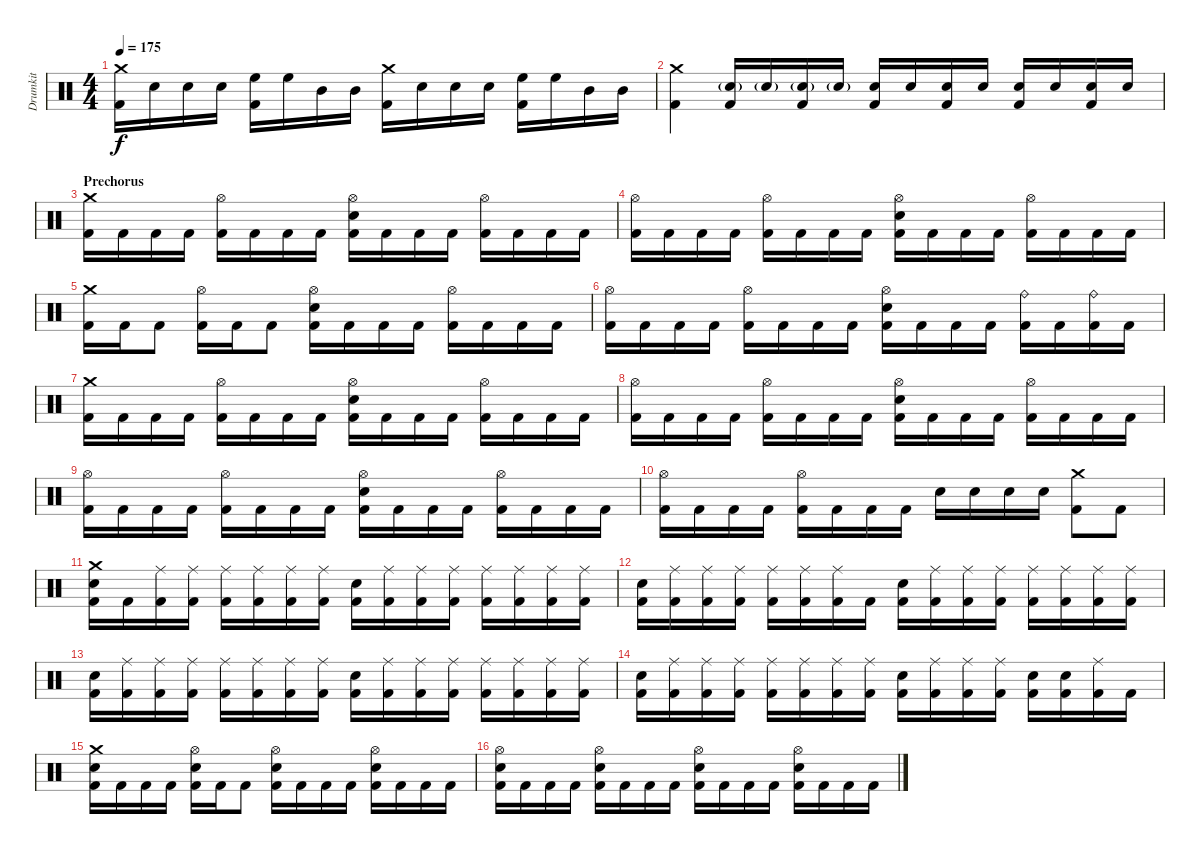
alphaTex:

\track ("Drumkit" "Drumkit") {instrument percussion}
\staff {score}
\articulation defaults
\ts (4 4)
\tempo 175
\clef neutral
\ks c
("Crash medium (hit)" "Kick (hit) 2").16{dy f} "Snare (hit) 2".16 "Snare (hit) 2".16 "Snare (hit) 2".16 ("High Floor Tom (hit)" "Kick (hit) 2").16 "High Floor Tom (hit)".16 "Mid Tom (hit)".16 "Mid Tom (hit)".16 ("Crash medium (hit)" "Kick (hit) 2").16 "Snare (hit) 2".16 "Snare (hit) 2".16 "Snare (hit) 2".16 ("High Floor Tom (hit)" "Kick (hit) 2").16 "High Floor Tom (hit)".16 "Mid Tom (hit)".16 "Mid Tom (hit)".16 |
("Crash medium (hit)" "Kick (hit) 2").4 ("Snare (hit) 2"{g} "Kick (hit) 2").16 "Snare (hit) 2"{g}.16 ("Snare (hit) 2"{g} "Kick (hit) 2").16 "Snare (hit) 2"{g}.16 ("Snare (hit) 2" "Kick (hit) 2").16 "Snare (hit) 2".16 ("Snare (hit) 2" "Kick (hit) 2").16 "Snare (hit) 2".16 ("Snare (hit) 2" "Kick (hit) 2").16 "Snare (hit) 2".16 ("Snare (hit) 2" "Kick (hit) 2").16 "Snare (hit) 2".16 |
\section ("" "Prechorus")
("Crash medium (hit)" "Kick (hit) 2").16 "Kick (hit) 2".16 "Kick (hit) 2".16 "Kick (hit) 2".16 ("Hi-Hat (open)" "Kick (hit) 2").16 "Kick (hit) 2".16 "Kick (hit) 2".16 "Kick (hit) 2".16 ("Hi-Hat (open)" "Snare (hit) 2" "Kick (hit) 2").16 "Kick (hit) 2".16 "Kick (hit) 2".16 "Kick (hit) 2".16 ("Hi-Hat (open)" "Kick (hit) 2").16 "Kick (hit) 2".16 "Kick (hit) 2".16 "Kick (hit) 2".16 |
("Hi-Hat (open)" "Kick (hit) 2").16 "Kick (hit) 2".16 "Kick (hit) 2".16 "Kick (hit) 2".16 ("Hi-Hat (open)" "Kick (hit) 2").16 "Kick (hit) 2".16 "Kick (hit) 2".16 "Kick (hit) 2".16 ("Hi-Hat (open)" "Snare (hit) 2" "Kick (hit) 2").16 "Kick (hit) 2".16 "Kick (hit) 2".16 "Kick (hit) 2".16 ("Hi-Hat (open)" "Kick (hit) 2").16 "Kick (hit) 2".16 "Kick (hit) 2".16 "Kick (hit) 2".16 |
("Crash medium (hit)" "Kick (hit) 2").16 "Kick (hit) 2".16 "Kick (hit) 2".8 ("Hi-Hat (open)" "Kick (hit) 2").16 "Kick (hit) 2".16 "Kick (hit) 2".8 ("Hi-Hat (open)" "Snare (hit) 2" "Kick (hit) 2").16 "Kick (hit) 2".16 "Kick (hit) 2".16 "Kick (hit) 2".16 ("Hi-Hat (open)" "Kick (hit) 2").16 "Kick (hit) 2".16 "Kick (hit) 2".16 "Kick (hit) 2".16 |
("Hi-Hat (open)" "Kick (hit) 2").16 "Kick (hit) 2".16 "Kick (hit) 2".16 "Kick (hit) 2".16 ("Hi-Hat (open)" "Kick (hit) 2").16 "Kick (hit) 2".16 "Kick (hit) 2".16 "Kick (hit) 2".16 ("Hi-Hat (open)" "Snare (hit) 2" "Kick (hit) 2").16 "Kick (hit) 2".16 "Kick (hit) 2".16 "Kick (hit) 2".16 ("Ride (bell)" "Kick (hit) 2").16 "Kick (hit) 2".16 ("Ride (bell)" "Kick (hit) 2").16 "Kick (hit) 2".16 |
("Crash medium (hit)" "Kick (hit) 2").16 "Kick (hit) 2".16 "Kick (hit) 2".16 "Kick (hit) 2".16 ("Hi-Hat (open)" "Kick (hit) 2").16 "Kick (hit) 2".16 "Kick (hit) 2".16 "Kick (hit) 2".16 ("Hi-Hat (open)" "Snare (hit) 2" "Kick (hit) 2").16 "Kick (hit) 2".16 "Kick (hit) 2".16 "Kick (hit) 2".16 ("Hi-Hat (open)" "Kick (hit) 2").16 "Kick (hit) 2".16 "Kick (hit) 2".16 "Kick (hit) 2".16 |
("Hi-Hat (open)" "Kick (hit) 2").16 "Kick (hit) 2".16 "Kick (hit) 2".16 "Kick (hit) 2".16 ("Hi-Hat (open)" "Kick (hit) 2").16 "Kick (hit) 2".16 "Kick (hit) 2".16 "Kick (hit) 2".16 ("Hi-Hat (open)" "Snare (hit) 2" "Kick (hit) 2").16 "Kick (hit) 2".16 "Kick (hit) 2".16 "Kick (hit) 2".16 ("Hi-Hat (open)" "Kick (hit) 2").16 "Kick (hit) 2".16 "Kick (hit) 2".16 "Kick (hit) 2".16 |
("Hi-Hat (open)" "Kick (hit) 2").16 "Kick (hit) 2".16 "Kick (hit) 2".16 "Kick (hit) 2".16 ("Hi-Hat (open)" "Kick (hit) 2").16 "Kick (hit) 2".16 "Kick (hit) 2".16 "Kick (hit) 2".16 ("Hi-Hat (open)" "Snare (hit) 2" "Kick (hit) 2").16 "Kick (hit) 2".16 "Kick (hit) 2".16 "Kick (hit) 2".16 ("Hi-Hat (open)" "Kick (hit) 2").16 "Kick (hit) 2".16 "Kick (hit) 2".16 "Kick (hit) 2".16 |
("Hi-Hat (open)" "Kick (hit) 2").16 "Kick (hit) 2".16 "Kick (hit) 2".16 "Kick (hit) 2".16 ("Hi-Hat (open)" "Kick (hit) 2").16 "Kick (hit) 2".16 "Kick (hit) 2".16 "Kick (hit) 2".16 "Snare (hit) 2".16 "Snare (hit) 2".16 "Snare (hit) 2".16 "Snare (hit) 2".16 ("Crash medium (hit)" "Kick (hit) 2").8 "Kick (hit) 2".8 |
("Crash medium (hit)" "Snare (hit) 2" "Kick (hit) 2").16 "Kick (hit) 2".16 ("Ride (middle)" "Kick (hit) 2").16 ("Ride (middle)" "Kick (hit) 2").16 ("Ride (middle)" "Kick (hit) 2").16 ("Ride (middle)" "Kick (hit) 2").16 ("Ride (middle)" "Kick (hit) 2").16 ("Ride (middle)" "Kick (hit) 2").16 ("Snare (hit) 2" "Kick (hit) 2").16 ("Ride (middle)" "Kick (hit) 2").16 ("Ride (middle)" "Kick (hit) 2").16 ("Ride (middle)" "Kick (hit) 2").16 ("Ride (middle)" "Kick (hit) 2").16 ("Ride (middle)" "Kick (hit) 2").16 ("Ride (middle)" "Kick (hit) 2").16 ("Ride (middle)" "Kick (hit) 2").16 |
("Snare (hit) 2" "Kick (hit) 2").16 ("Ride (middle)" "Kick (hit) 2").16 ("Ride (middle)" "Kick (hit) 2").16 ("Ride (middle)" "Kick (hit) 2").16 ("Ride (middle)" "Kick (hit) 2").16 ("Ride (middle)" "Kick (hit) 2").16 ("Ride (middle)" "Kick (hit) 2").16 "Kick (hit) 2".16 ("Snare (hit) 2" "Kick (hit) 2").16 ("Ride (middle)" "Kick (hit) 2").16 ("Ride (middle)" "Kick (hit) 2").16 ("Ride (middle)" "Kick (hit) 2").16 ("Ride (middle)" "Kick (hit) 2").16 ("Ride (middle)" "Kick (hit) 2").16 ("Ride (middle)" "Kick (hit) 2").16 ("Ride (middle)" "Kick (hit) 2").16 |
("Snare (hit) 2" "Kick (hit) 2").16 ("Ride (middle)" "Kick (hit) 2").16 ("Ride (middle)" "Kick (hit) 2").16 ("Ride (middle)" "Kick (hit) 2").16 ("Ride (middle)" "Kick (hit) 2").16 ("Ride (middle)" "Kick (hit) 2").16 ("Ride (middle)" "Kick (hit) 2").16 ("Ride (middle)" "Kick (hit) 2").16 ("Snare (hit) 2" "Kick (hit) 2").16 ("Ride (middle)" "Kick (hit) 2").16 ("Ride (middle)" "Kick (hit) 2").16 ("Ride (middle)" "Kick (hit) 2").16 ("Ride (middle)" "Kick (hit) 2").16 ("Ride (middle)" "Kick (hit) 2").16 ("Ride (middle)" "Kick (hit) 2").16 ("Ride (middle)" "Kick (hit) 2").16 |
("Snare (hit) 2" "Kick (hit) 2").16 ("Ride (middle)" "Kick (hit) 2").16 ("Ride (middle)" "Kick (hit) 2").16 ("Ride (middle)" "Kick (hit) 2").16 ("Ride (middle)" "Kick (hit) 2").16 ("Ride (middle)" "Kick (hit) 2").16 ("Ride (middle)" "Kick (hit) 2").16 ("Ride (middle)" "Kick (hit) 2").16 ("Snare (hit) 2" "Kick (hit) 2").16 ("Ride (middle)" "Kick (hit) 2").16 ("Ride (middle)" "Kick (hit) 2").16 ("Ride (middle)" "Kick (hit) 2").16 ("Snare (hit) 2" "Kick (hit) 2").16 ("Snare (hit) 2" "Kick (hit) 2").16 ("Ride (middle)" "Kick (hit) 2").16 "Kick (hit) 2".16 |
("Crash medium (hit)" "Snare (hit) 2" "Kick (hit) 2").16 "Kick (hit) 2".16 "Kick (hit) 2".16 "Kick (hit) 2".16 ("Hi-Hat (open)" "Snare (hit) 2" "Kick (hit) 2").16 "Kick (hit) 2".16 "Kick (hit) 2".8 ("Hi-Hat (open)" "Snare (hit) 2" "Kick (hit) 2").16 "Kick (hit) 2".16 "Kick (hit) 2".16 "Kick (hit) 2".16 ("Hi-Hat (open)" "Snare (hit) 2" "Kick (hit) 2").16 "Kick (hit) 2".16 "Kick (hit) 2".16 "Kick (hit) 2".16 |
("Hi-Hat (open)" "Snare (hit) 2" "Kick (hit) 2").16 "Kick (hit) 2".16 "Kick (hit) 2".16 "Kick (hit) 2".16 ("Hi-Hat (open)" "Snare (hit) 2" "Kick (hit) 2").16 "Kick (hit) 2".16 "Kick (hit) 2".16 "Kick (hit) 2".16 ("Hi-Hat (open)" "Snare (hit) 2" "Kick (hit) 2").16 "Kick (hit) 2".16 "Kick (hit) 2".16 "Kick (hit) 2".16 ("Hi-Hat (open)" "Snare (hit) 2" "Kick (hit) 2").16 "Kick (hit) 2".16 "Kick (hit) 2".16 "Kick (hit) 2".16
